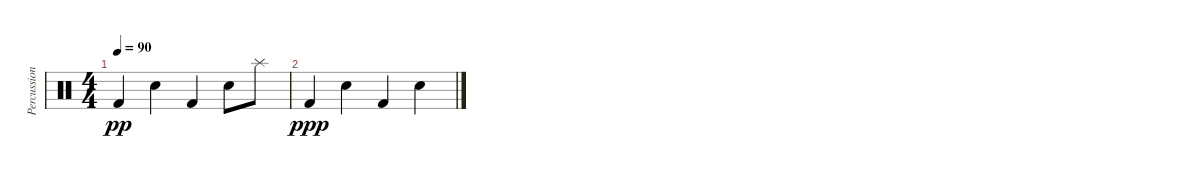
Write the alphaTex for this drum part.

\track ("Percussion" "Percussion") {instrument percussion}
\staff {score}
\articulation defaults
\ts (4 4)
\tempo 90
\clef neutral
\ks c "Kick (hit) 2".4{dy pp} "Electric Snare (hit)".4 "Kick (hit) 2".4 "Electric Snare (hit)".8 "Splash (hit)".8
|
"Kick (hit) 2".4{dy ppp} "Electric Snare (hit)".4 "Kick (hit) 2".4 "Electric Snare (hit)".4
